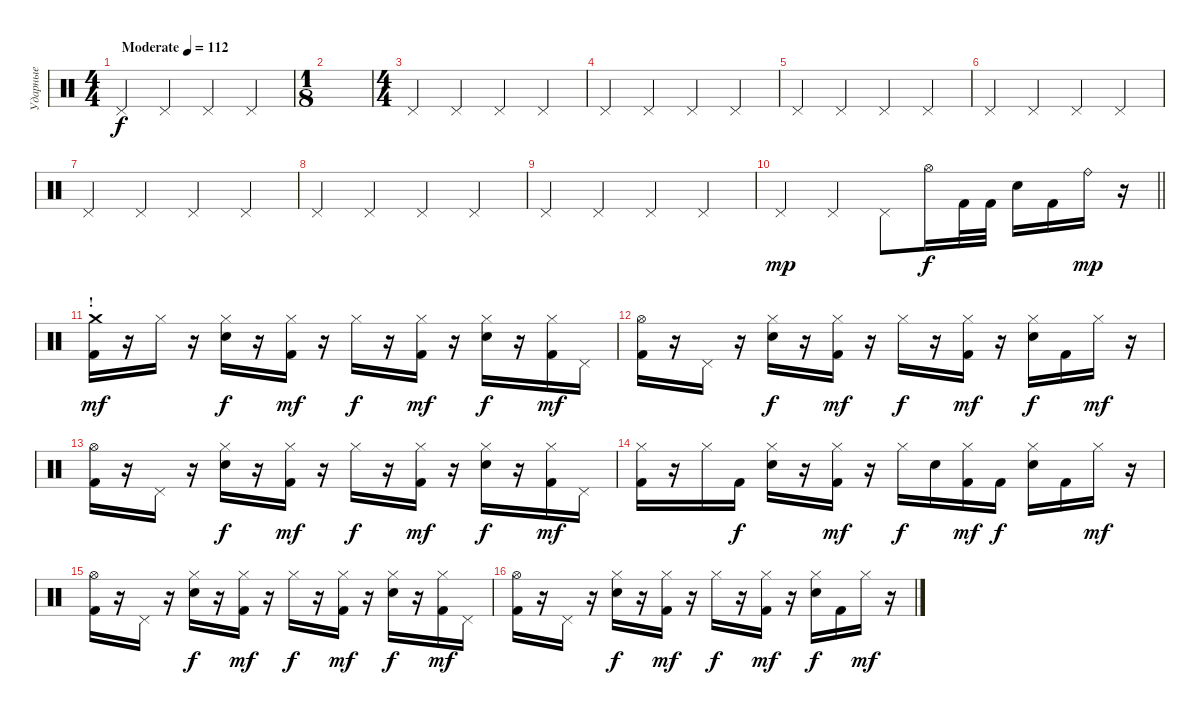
\track ("Ударные" "Ударные") {instrument percussion}
\staff {score}
\articulation defaults
\ts (4 4)
\tempo (112 "Moderate")
\clef neutral
\ks c "Pedal Hi-Hat (hit)".4{dy f} "Pedal Hi-Hat (hit)".4 "Pedal Hi-Hat (hit)".4 "Pedal Hi-Hat (hit)".4
|
\ts (1 8)
|
\ts (4 4)
"Pedal Hi-Hat (hit)".4 "Pedal Hi-Hat (hit)".4 "Pedal Hi-Hat (hit)".4 "Pedal Hi-Hat (hit)".4 |
"Pedal Hi-Hat (hit)".4 "Pedal Hi-Hat (hit)".4 "Pedal Hi-Hat (hit)".4 "Pedal Hi-Hat (hit)".4 |
"Pedal Hi-Hat (hit)".4 "Pedal Hi-Hat (hit)".4 "Pedal Hi-Hat (hit)".4 "Pedal Hi-Hat (hit)".4 |
"Pedal Hi-Hat (hit)".4 "Pedal Hi-Hat (hit)".4 "Pedal Hi-Hat (hit)".4 "Pedal Hi-Hat (hit)".4 |
"Pedal Hi-Hat (hit)".4 "Pedal Hi-Hat (hit)".4 "Pedal Hi-Hat (hit)".4 "Pedal Hi-Hat (hit)".4 |
"Pedal Hi-Hat (hit)".4 "Pedal Hi-Hat (hit)".4 "Pedal Hi-Hat (hit)".4 "Pedal Hi-Hat (hit)".4 |
"Pedal Hi-Hat (hit)".4 "Pedal Hi-Hat (hit)".4 "Pedal Hi-Hat (hit)".4 "Pedal Hi-Hat (hit)".4 |
\barLineRight lightlight "Pedal Hi-Hat (hit)".4{dy mp} "Pedal Hi-Hat (hit)".4 "Pedal Hi-Hat (hit)".8 "Hi-Hat (open)".16{dy f} "Kick (hit) 2".32 "Kick (hit) 2".32 "Electric Snare (hit)".16 "Kick (hit) 2".16 "Ride (bell)".16{dy mp}
r.16 |
\section ("" "!")
("Crash medium (hit)" "Kick (hit) 2").16{dy mf} r.16 "Hi-Hat (closed)".16 r.16 ("Hi-Hat (closed)" "Electric Snare (hit)").16{dy f} r.16 ("Hi-Hat (closed)" "Kick (hit) 2").16{dy mf} r.16 "Hi-Hat (closed)".16{dy f} r.16 ("Hi-Hat (closed)" "Kick (hit) 2").16{dy mf} r.16 ("Hi-Hat (closed)" "Electric Snare (hit)").16{dy f} r.16 ("Hi-Hat (closed)" "Kick (hit) 2").16{dy mf} "Pedal Hi-Hat (hit)".16 |
("Hi-Hat (open)" "Kick (hit) 2").16 r.16 "Pedal Hi-Hat (hit)".16 r.16 ("Hi-Hat (closed)" "Electric Snare (hit)").16{dy f} r.16 ("Hi-Hat (closed)" "Kick (hit) 2").16{dy mf} r.16 "Hi-Hat (closed)".16{dy f} r.16 ("Hi-Hat (closed)" "Kick (hit) 2").16{dy mf} r.16 ("Hi-Hat (closed)" "Electric Snare (hit)").16{dy f} "Kick (hit) 2".16 "Hi-Hat (closed)".16{dy mf} r.16 |
("Hi-Hat (open)" "Kick (hit) 2").16 r.16 "Pedal Hi-Hat (hit)".16 r.16 ("Hi-Hat (closed)" "Electric Snare (hit)").16{dy f} r.16 ("Hi-Hat (closed)" "Kick (hit) 2").16{dy mf} r.16 "Hi-Hat (closed)".16{dy f} r.16 ("Hi-Hat (closed)" "Kick (hit) 2").16{dy mf} r.16 ("Hi-Hat (closed)" "Electric Snare (hit)").16{dy f} r.16 ("Hi-Hat (closed)" "Kick (hit) 2").16{dy mf} "Pedal Hi-Hat (hit)".16 |
("Hi-Hat (closed)" "Kick (hit) 2").16 r.16 "Hi-Hat (closed)".16 "Kick (hit) 2".16{dy f} ("Hi-Hat (closed)" "Electric Snare (hit)").16 r.16 ("Hi-Hat (closed)" "Kick (hit) 2").16{dy mf} r.16 "Hi-Hat (closed)".16{dy f} "Electric Snare (hit)".16 ("Hi-Hat (closed)" "Kick (hit) 2").16{dy mf} "Kick (hit) 2".16{dy f} ("Hi-Hat (closed)" "Electric Snare (hit)").16 "Kick (hit) 2".16 "Hi-Hat (closed)".16{dy mf} r.16 |
("Hi-Hat (open)" "Kick (hit) 2").16 r.16 "Pedal Hi-Hat (hit)".16 r.16 ("Hi-Hat (closed)" "Electric Snare (hit)").16{dy f} r.16 ("Hi-Hat (closed)" "Kick (hit) 2").16{dy mf} r.16 "Hi-Hat (closed)".16{dy f} r.16 ("Hi-Hat (closed)" "Kick (hit) 2").16{dy mf} r.16 ("Hi-Hat (closed)" "Electric Snare (hit)").16{dy f} r.16 ("Hi-Hat (closed)" "Kick (hit) 2").16{dy mf} "Pedal Hi-Hat (hit)".16 |
("Hi-Hat (open)" "Kick (hit) 2").16 r.16 "Pedal Hi-Hat (hit)".16 r.16 ("Hi-Hat (closed)" "Electric Snare (hit)").16{dy f} r.16 ("Hi-Hat (closed)" "Kick (hit) 2").16{dy mf} r.16 "Hi-Hat (closed)".16{dy f} r.16 ("Hi-Hat (closed)" "Kick (hit) 2").16{dy mf} r.16 ("Hi-Hat (closed)" "Electric Snare (hit)").16{dy f} "Kick (hit) 2".16 "Hi-Hat (closed)".16{dy mf} r.16
